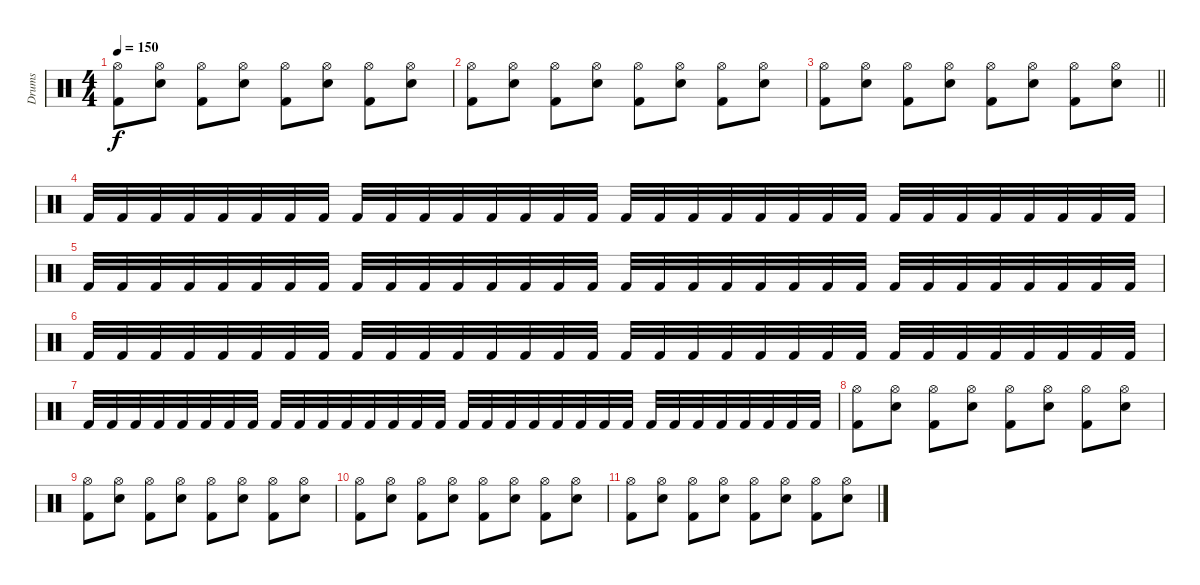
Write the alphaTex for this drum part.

\track ("Drums" "Drums") {instrument percussion}
\staff {score}
\articulation defaults
\ts (4 4)
\tempo 150
\clef neutral
\ks c
("Hi-Hat (open)" "Kick (hit) 2").8{dy f} ("Hi-Hat (open)" "Snare (hit) 2").8 ("Hi-Hat (open)" "Kick (hit) 2").8 ("Hi-Hat (open)" "Snare (hit) 2").8 ("Hi-Hat (open)" "Kick (hit) 2").8 ("Hi-Hat (open)" "Snare (hit) 2").8 ("Hi-Hat (open)" "Kick (hit) 2").8 ("Hi-Hat (open)" "Snare (hit) 2").8 |
("Hi-Hat (open)" "Kick (hit) 2").8 ("Hi-Hat (open)" "Snare (hit) 2").8 ("Hi-Hat (open)" "Kick (hit) 2").8 ("Hi-Hat (open)" "Snare (hit) 2").8 ("Hi-Hat (open)" "Kick (hit) 2").8 ("Hi-Hat (open)" "Snare (hit) 2").8 ("Hi-Hat (open)" "Kick (hit) 2").8 ("Hi-Hat (open)" "Snare (hit) 2").8 |
\barLineRight lightlight
("Hi-Hat (open)" "Kick (hit) 2").8 ("Hi-Hat (open)" "Snare (hit) 2").8 ("Hi-Hat (open)" "Kick (hit) 2").8 ("Hi-Hat (open)" "Snare (hit) 2").8 ("Hi-Hat (open)" "Kick (hit) 2").8 ("Hi-Hat (open)" "Snare (hit) 2").8 ("Hi-Hat (open)" "Kick (hit) 2").8 ("Hi-Hat (open)" "Snare (hit) 2").8 |
"Kick (hit) 2".32 "Kick (hit) 2".32 "Kick (hit) 2".32 "Kick (hit) 2".32 "Kick (hit) 2".32 "Kick (hit) 2".32 "Kick (hit) 2".32 "Kick (hit) 2".32 "Kick (hit) 2".32 "Kick (hit) 2".32 "Kick (hit) 2".32 "Kick (hit) 2".32 "Kick (hit) 2".32 "Kick (hit) 2".32 "Kick (hit) 2".32 "Kick (hit) 2".32 "Kick (hit) 2".32 "Kick (hit) 2".32 "Kick (hit) 2".32 "Kick (hit) 2".32 "Kick (hit) 2".32 "Kick (hit) 2".32 "Kick (hit) 2".32 "Kick (hit) 2".32 "Kick (hit) 2".32 "Kick (hit) 2".32 "Kick (hit) 2".32 "Kick (hit) 2".32 "Kick (hit) 2".32 "Kick (hit) 2".32 "Kick (hit) 2".32 "Kick (hit) 2".32 |
"Kick (hit) 2".32 "Kick (hit) 2".32 "Kick (hit) 2".32 "Kick (hit) 2".32 "Kick (hit) 2".32 "Kick (hit) 2".32 "Kick (hit) 2".32 "Kick (hit) 2".32 "Kick (hit) 2".32 "Kick (hit) 2".32 "Kick (hit) 2".32 "Kick (hit) 2".32 "Kick (hit) 2".32 "Kick (hit) 2".32 "Kick (hit) 2".32 "Kick (hit) 2".32 "Kick (hit) 2".32 "Kick (hit) 2".32 "Kick (hit) 2".32 "Kick (hit) 2".32 "Kick (hit) 2".32 "Kick (hit) 2".32 "Kick (hit) 2".32 "Kick (hit) 2".32 "Kick (hit) 2".32 "Kick (hit) 2".32 "Kick (hit) 2".32 "Kick (hit) 2".32 "Kick (hit) 2".32 "Kick (hit) 2".32 "Kick (hit) 2".32 "Kick (hit) 2".32 |
"Kick (hit) 2".32 "Kick (hit) 2".32 "Kick (hit) 2".32 "Kick (hit) 2".32 "Kick (hit) 2".32 "Kick (hit) 2".32 "Kick (hit) 2".32 "Kick (hit) 2".32 "Kick (hit) 2".32 "Kick (hit) 2".32 "Kick (hit) 2".32 "Kick (hit) 2".32 "Kick (hit) 2".32 "Kick (hit) 2".32 "Kick (hit) 2".32 "Kick (hit) 2".32 "Kick (hit) 2".32 "Kick (hit) 2".32 "Kick (hit) 2".32 "Kick (hit) 2".32 "Kick (hit) 2".32 "Kick (hit) 2".32 "Kick (hit) 2".32 "Kick (hit) 2".32 "Kick (hit) 2".32 "Kick (hit) 2".32 "Kick (hit) 2".32 "Kick (hit) 2".32 "Kick (hit) 2".32 "Kick (hit) 2".32 "Kick (hit) 2".32 "Kick (hit) 2".32 |
"Kick (hit) 2".32 "Kick (hit) 2".32 "Kick (hit) 2".32 "Kick (hit) 2".32 "Kick (hit) 2".32 "Kick (hit) 2".32 "Kick (hit) 2".32 "Kick (hit) 2".32 "Kick (hit) 2".32 "Kick (hit) 2".32 "Kick (hit) 2".32 "Kick (hit) 2".32 "Kick (hit) 2".32 "Kick (hit) 2".32 "Kick (hit) 2".32 "Kick (hit) 2".32 "Kick (hit) 2".32 "Kick (hit) 2".32 "Kick (hit) 2".32 "Kick (hit) 2".32 "Kick (hit) 2".32 "Kick (hit) 2".32 "Kick (hit) 2".32 "Kick (hit) 2".32 "Kick (hit) 2".32 "Kick (hit) 2".32 "Kick (hit) 2".32 "Kick (hit) 2".32 "Kick (hit) 2".32 "Kick (hit) 2".32 "Kick (hit) 2".32 "Kick (hit) 2".32 |
("Hi-Hat (open)" "Kick (hit) 2").8 ("Hi-Hat (open)" "Snare (hit) 2").8 ("Hi-Hat (open)" "Kick (hit) 2").8 ("Hi-Hat (open)" "Snare (hit) 2").8 ("Hi-Hat (open)" "Kick (hit) 2").8 ("Hi-Hat (open)" "Snare (hit) 2").8 ("Hi-Hat (open)" "Kick (hit) 2").8 ("Hi-Hat (open)" "Snare (hit) 2").8 |
("Hi-Hat (open)" "Kick (hit) 2").8 ("Hi-Hat (open)" "Snare (hit) 2").8 ("Hi-Hat (open)" "Kick (hit) 2").8 ("Hi-Hat (open)" "Snare (hit) 2").8 ("Hi-Hat (open)" "Kick (hit) 2").8 ("Hi-Hat (open)" "Snare (hit) 2").8 ("Hi-Hat (open)" "Kick (hit) 2").8 ("Hi-Hat (open)" "Snare (hit) 2").8 |
("Hi-Hat (open)" "Kick (hit) 2").8 ("Hi-Hat (open)" "Snare (hit) 2").8 ("Hi-Hat (open)" "Kick (hit) 2").8 ("Hi-Hat (open)" "Snare (hit) 2").8 ("Hi-Hat (open)" "Kick (hit) 2").8 ("Hi-Hat (open)" "Snare (hit) 2").8 ("Hi-Hat (open)" "Kick (hit) 2").8 ("Hi-Hat (open)" "Snare (hit) 2").8 |
("Hi-Hat (open)" "Kick (hit) 2").8 ("Hi-Hat (open)" "Snare (hit) 2").8 ("Hi-Hat (open)" "Kick (hit) 2").8 ("Hi-Hat (open)" "Snare (hit) 2").8 ("Hi-Hat (open)" "Kick (hit) 2").8 ("Hi-Hat (open)" "Snare (hit) 2").8 ("Hi-Hat (open)" "Kick (hit) 2").8 ("Hi-Hat (open)" "Snare (hit) 2").8
